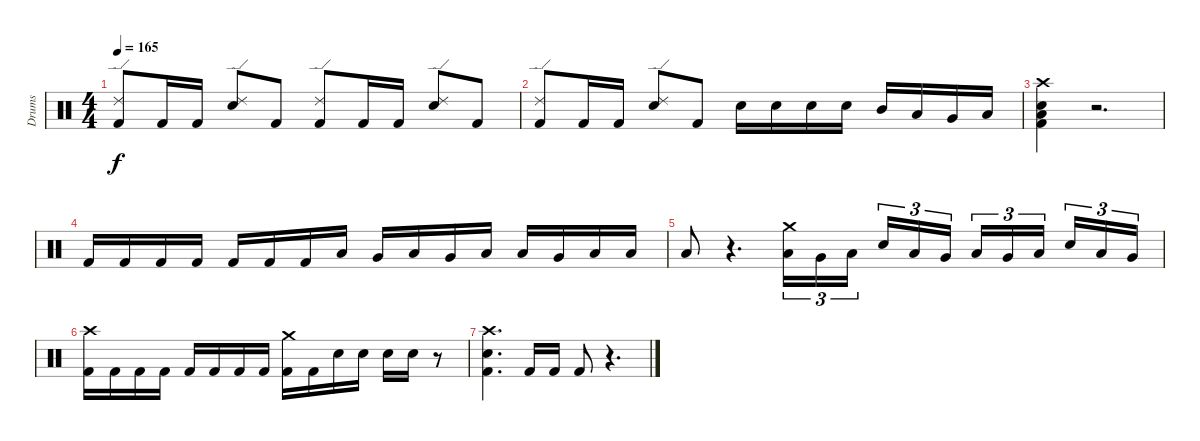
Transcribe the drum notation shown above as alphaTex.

\track ("Drums" "Drums") {instrument percussion}
\staff {score}
\articulation defaults
\ts (4 4)
\tempo 165
\clef neutral
\ks c
("Ride (edge) 2" "Kick (hit) 2").8{dy f} "Kick (hit) 2".16 "Kick (hit) 2".16 ("Ride (edge) 2" "Snare (hit) 2").8 "Kick (hit) 2".8 ("Ride (edge) 2" "Kick (hit) 2").8 "Kick (hit) 2".16 "Kick (hit) 2".16 ("Ride (edge) 2" "Snare (hit) 2").8 "Kick (hit) 2".8 |
("Ride (edge) 2" "Kick (hit) 2").8 "Kick (hit) 2".16 "Kick (hit) 2".16 ("Ride (edge) 2" "Snare (hit) 2").8 "Kick (hit) 2".8 "Snare (hit) 2".16 "Snare (hit) 2".16 "Snare (hit) 2".16 "Snare (hit) 2".16 "Mid Tom (hit)".16 "Low Tom (hit)".16 "Very Low Tom (hit)".16 "Low Floor Tom (hit)".16 |
("Crash high (hit)" "Snare (hit) 2" "Low Floor Tom (hit)" "Kick (hit) 2").4 r.2{d} |
"Kick (hit) 2".16 "Kick (hit) 2".16 "Kick (hit) 2".16 "Kick (hit) 2".16 "Kick (hit) 2".16 "Kick (hit) 2".16 "Kick (hit) 2".16 "Low Floor Tom (hit)".16 "Very Low Tom (hit)".16 "Low Tom (hit)".16 "Very Low Tom (hit)".16 "Low Floor Tom (hit)".16 "Low Tom (hit)".16 "Very Low Tom (hit)".16 "Low Tom (hit)".16 "Low Floor Tom (hit)".16 |
"Low Tom (hit)".8 r.4{d} ("Crash medium (hit)" "Low Tom (hit)").16{tu (3 2)} "Very Low Tom (hit)".16{tu (3 2)} "Low Floor Tom (hit)".16{tu (3 2) beam splitsecondary} "Snare (hit) 2".16{tu (3 2)} "Low Tom (hit)".16{tu (3 2)} "Very Low Tom (hit)".16{tu (3 2)} "Low Tom (hit)".16{tu (3 2)} "Very Low Tom (hit)".16{tu (3 2)} "Low Floor Tom (hit)".16{tu (3 2) beam splitsecondary} "Snare (hit) 2".16{tu (3 2)} "Low Tom (hit)".16{tu (3 2)} "Very Low Tom (hit)".16{tu (3 2)} |
("Crash high (hit)" "Kick (hit) 2").16 "Kick (hit) 2".16 "Kick (hit) 2".16 "Kick (hit) 2".16 "Kick (hit) 2".16 "Kick (hit) 2".16 "Kick (hit) 2".16 "Kick (hit) 2".16 ("Crash medium (hit)" "Kick (hit) 2").16 "Kick (hit) 2".16 "Snare (hit) 2".16 "Snare (hit) 2".16 "Snare (hit) 2".16 "Snare (hit) 2".16 r.8 |
("Crash high (hit)" "Snare (hit) 2" "Kick (hit) 2").4{d} "Kick (hit) 2".16 "Kick (hit) 2".16 "Kick (hit) 2".8 r.4{d}
